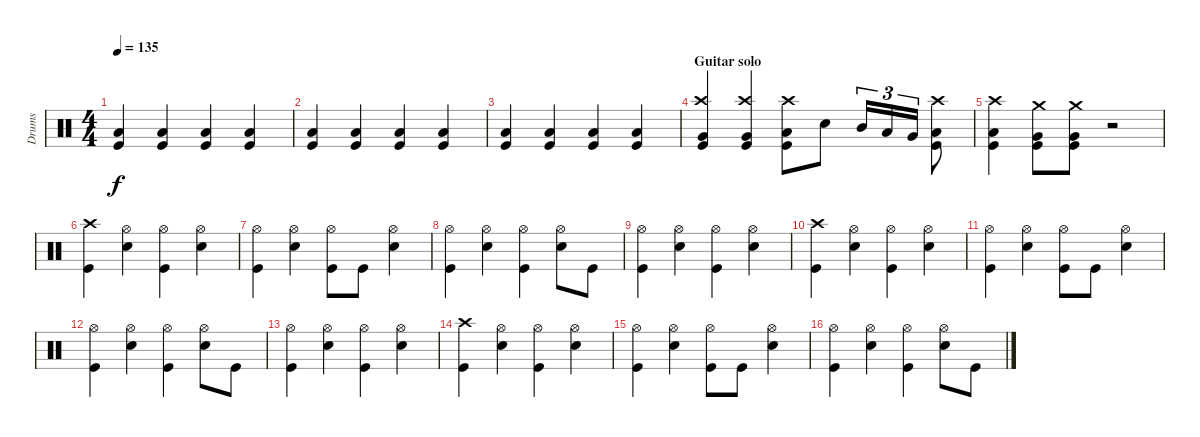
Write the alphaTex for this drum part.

\track ("Drums" "Drums") {instrument percussion}
\staff {score}
\articulation defaults
\ts (4 4)
\tempo 135
\clef neutral
\ks c
("Low Floor Tom (hit)" "Kick (hit)").4{dy f} ("Low Floor Tom (hit)" "Kick (hit)").4 ("Low Floor Tom (hit)" "Kick (hit)").4 ("Low Floor Tom (hit)" "Kick (hit)").4 |
("Low Floor Tom (hit)" "Kick (hit)").4 ("Low Floor Tom (hit)" "Kick (hit)").4 ("Low Floor Tom (hit)" "Kick (hit)").4 ("Low Floor Tom (hit)" "Kick (hit)").4 |
("Low Floor Tom (hit)" "Kick (hit)").4 ("Low Floor Tom (hit)" "Kick (hit)").4 ("Low Floor Tom (hit)" "Kick (hit)").4 ("Low Floor Tom (hit)" "Kick (hit)").4 |
\section ("" "Guitar solo")
("Crash high (hit)" "Very Low Tom (hit)" "Kick (hit)").4 ("Crash high (hit)" "Very Low Tom (hit)" "Kick (hit)").4 ("Crash high (hit)" "Low Floor Tom (hit)" "Kick (hit)").8 "Snare (hit) 2".8 "Mid Tom (hit)".16{tu (3 2)} "Low Tom (hit)".16{tu (3 2)} "Very Low Tom (hit)".16{tu (3 2)} ("Crash high (hit)" "Low Floor Tom (hit)" "Kick (hit)").8 |
("Crash high (hit)" "Low Floor Tom (hit)" "Kick (hit)").4 ("Crash medium (hit)" "Very Low Tom (hit)" "Kick (hit)").8 ("Crash medium (hit)" "Very Low Tom (hit)" "Kick (hit)").8 r.2 |
("Crash high (hit)" "Kick (hit)").4 ("Hi-Hat (open)" "Snare (hit) 2").4 ("Hi-Hat (open)" "Kick (hit)").4 ("Hi-Hat (open)" "Snare (hit) 2").4 |
("Hi-Hat (open)" "Kick (hit)").4 ("Hi-Hat (open)" "Snare (hit) 2").4 ("Hi-Hat (open)" "Kick (hit)").8 "Kick (hit)".8 ("Hi-Hat (open)" "Snare (hit) 2").4 |
("Hi-Hat (open)" "Kick (hit)").4 ("Hi-Hat (open)" "Snare (hit) 2").4 ("Hi-Hat (open)" "Kick (hit)").4 ("Hi-Hat (open)" "Snare (hit) 2").8 "Kick (hit)".8 |
("Hi-Hat (open)" "Kick (hit)").4 ("Hi-Hat (open)" "Snare (hit) 2").4 ("Hi-Hat (open)" "Kick (hit)").4 ("Hi-Hat (open)" "Snare (hit) 2").4 |
("Crash high (hit)" "Kick (hit)").4 ("Hi-Hat (open)" "Snare (hit) 2").4 ("Hi-Hat (open)" "Kick (hit)").4 ("Hi-Hat (open)" "Snare (hit) 2").4 |
("Hi-Hat (open)" "Kick (hit)").4 ("Hi-Hat (open)" "Snare (hit) 2").4 ("Hi-Hat (open)" "Kick (hit)").8 "Kick (hit)".8 ("Hi-Hat (open)" "Snare (hit) 2").4 |
("Hi-Hat (open)" "Kick (hit)").4 ("Hi-Hat (open)" "Snare (hit) 2").4 ("Hi-Hat (open)" "Kick (hit)").4 ("Hi-Hat (open)" "Snare (hit) 2").8 "Kick (hit)".8 |
("Hi-Hat (open)" "Kick (hit)").4 ("Hi-Hat (open)" "Snare (hit) 2").4 ("Hi-Hat (open)" "Kick (hit)").4 ("Hi-Hat (open)" "Snare (hit) 2").4 |
("Crash high (hit)" "Kick (hit)").4 ("Hi-Hat (open)" "Snare (hit) 2").4 ("Hi-Hat (open)" "Kick (hit)").4 ("Hi-Hat (open)" "Snare (hit) 2").4 |
("Hi-Hat (open)" "Kick (hit)").4 ("Hi-Hat (open)" "Snare (hit) 2").4 ("Hi-Hat (open)" "Kick (hit)").8 "Kick (hit)".8 ("Hi-Hat (open)" "Snare (hit) 2").4 |
("Hi-Hat (open)" "Kick (hit)").4 ("Hi-Hat (open)" "Snare (hit) 2").4 ("Hi-Hat (open)" "Kick (hit)").4 ("Hi-Hat (open)" "Snare (hit) 2").8 "Kick (hit)".8
